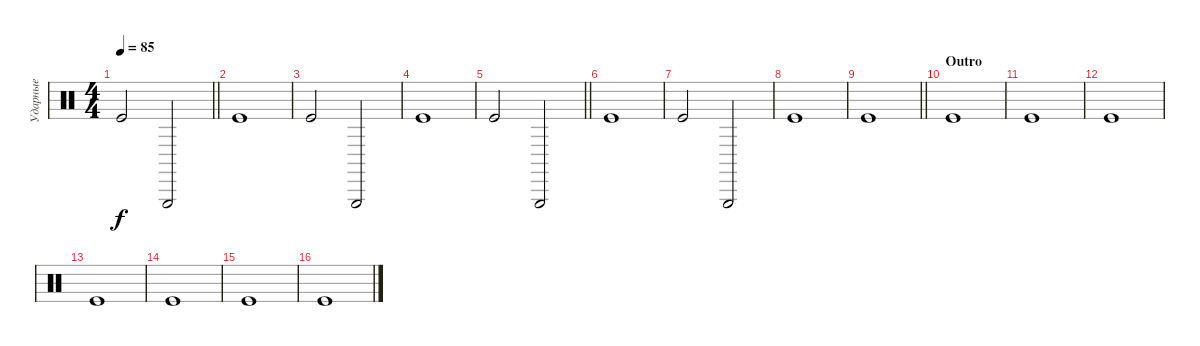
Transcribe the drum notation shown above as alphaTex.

\track ("Ударные" "Ударные") {instrument percussion}
\staff {score}
\articulation defaults
\ts (4 4)
\tempo 85
\clef neutral
\barLineRight lightlight
\ks c "Kick (hit)".2{dy f} "Triangle (hit)".2
|
"Kick (hit)".1 |
"Kick (hit)".2 "Triangle (hit)".2 |
"Kick (hit)".1 |
\barLineRight lightlight "Kick (hit)".2 "Triangle (hit)".2
|
"Kick (hit)".1 |
"Kick (hit)".2 "Triangle (hit)".2 |
"Kick (hit)".1 |
\barLineRight lightlight "Kick (hit)".1
|
\section ("" "Outro")
"Kick (hit)".1 |
"Kick (hit)".1 |
"Kick (hit)".1 |
"Kick (hit)".1 |
"Kick (hit)".1 |
"Kick (hit)".1 |
"Kick (hit)".1
